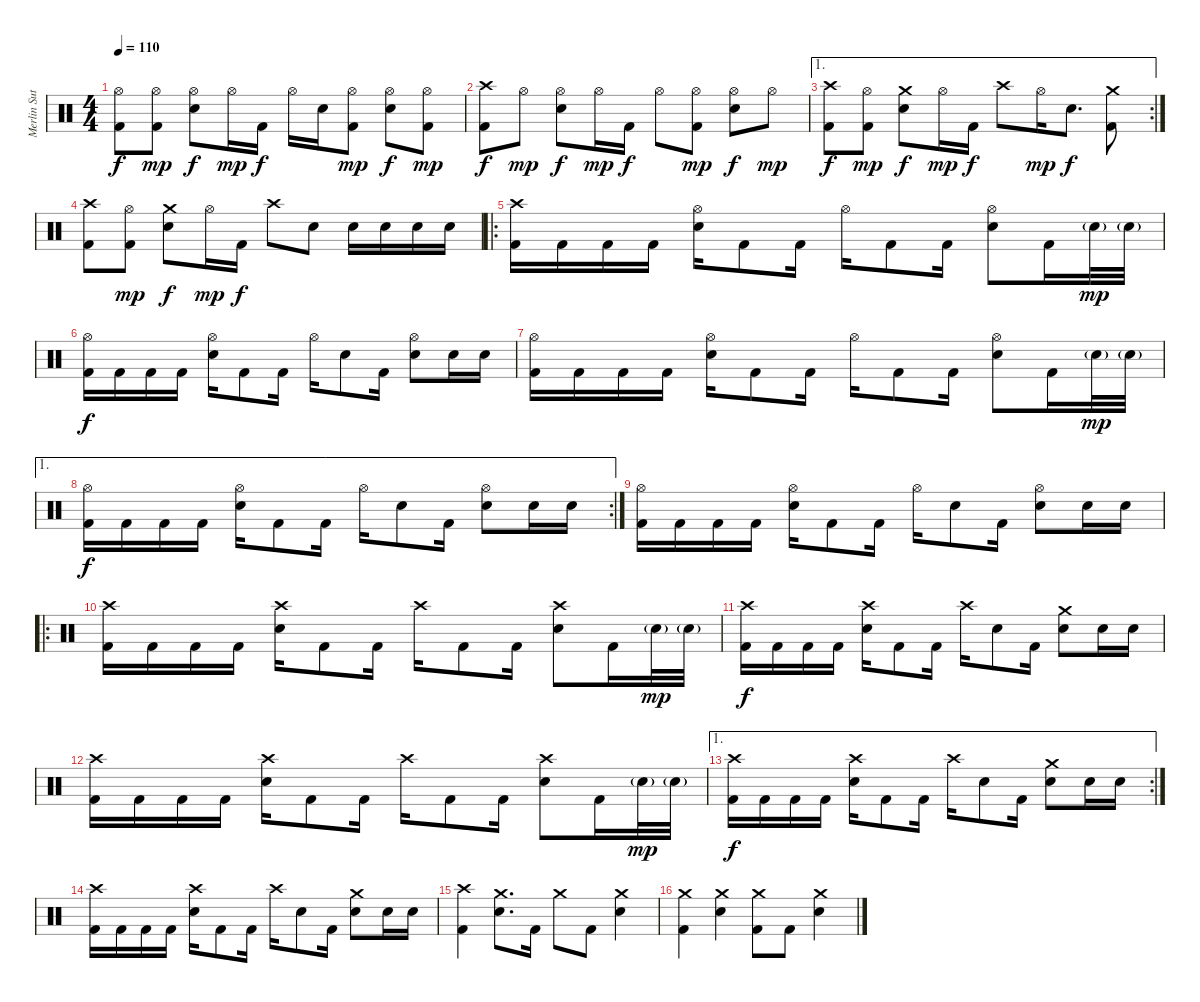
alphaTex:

\track ("Merlin Sutter" "Merlin Sut") {instrument percussion}
\staff {score}
\articulation defaults
\ts (4 4)
\tempo 110
\clef neutral
\ks c
("Hi-Hat (open)" "Kick (hit) 2").8{dy f} ("Hi-Hat (open)" "Kick (hit) 2").8{dy mp} ("Hi-Hat (open)" "Snare (hit) 2").8{dy f} "Hi-Hat (open)".16{dy mp} "Kick (hit) 2".16{dy f} "Hi-Hat (open)".16 "Snare (hit) 2".16 ("Hi-Hat (open)" "Kick (hit) 2").8{dy mp} ("Hi-Hat (open)" "Snare (hit) 2").8{dy f} ("Hi-Hat (open)" "Kick (hit) 2").8{dy mp} |
("Crash high (hit)" "Kick (hit) 2").8{dy f} "Hi-Hat (open)".8{dy mp} ("Hi-Hat (open)" "Snare (hit) 2").8{dy f} "Hi-Hat (open)".16{dy mp} "Kick (hit) 2".16{dy f} "Hi-Hat (open)".8 ("Hi-Hat (open)" "Kick (hit) 2").8{dy mp} ("Hi-Hat (open)" "Snare (hit) 2").8{dy f} "Hi-Hat (open)".8{dy mp} |
\ae 1
\rc 2
("Crash high (hit)" "Kick (hit) 2").8{dy f} ("Hi-Hat (open)" "Kick (hit) 2").8{dy mp} ("Crash medium (hit)" "Snare (hit) 2").8{dy f} "Hi-Hat (open)".16{dy mp} "Kick (hit) 2".16{dy f} "Crash high (hit)".8 "Hi-Hat (open)".16{dy mp} "Snare (hit) 2".8{d dy f} ("Crash medium (hit)" "Kick (hit) 2").8 |
("Crash high (hit)" "Kick (hit) 2").8 ("Hi-Hat (open)" "Kick (hit) 2").8{dy mp} ("Crash medium (hit)" "Snare (hit) 2").8{dy f} "Hi-Hat (open)".16{dy mp} "Kick (hit) 2".16{dy f} "Crash high (hit)".8 "Snare (hit) 2".8 "Snare (hit) 2".16 "Snare (hit) 2".16 "Snare (hit) 2".16 "Snare (hit) 2".16 |
\ro
("Crash high (hit)" "Kick (hit) 2").16 "Kick (hit) 2".16 "Kick (hit) 2".16 "Kick (hit) 2".16 ("Hi-Hat (open)" "Snare (hit) 2").16 "Kick (hit) 2".8 "Kick (hit) 2".16 "Hi-Hat (open)".16 "Kick (hit) 2".8 "Kick (hit) 2".16 ("Hi-Hat (open)" "Snare (hit) 2").8 "Kick (hit) 2".16 "Snare (hit) 2"{g}.32{dy mp} "Snare (hit) 2"{g}.32 |
("Hi-Hat (open)" "Kick (hit) 2").16{dy f} "Kick (hit) 2".16 "Kick (hit) 2".16 "Kick (hit) 2".16 ("Hi-Hat (open)" "Snare (hit) 2").16 "Kick (hit) 2".8 "Kick (hit) 2".16 "Hi-Hat (open)".16 "Snare (hit) 2".8 "Kick (hit) 2".16 ("Hi-Hat (open)" "Snare (hit) 2").8 "Snare (hit) 2".16 "Snare (hit) 2".16 |
("Hi-Hat (open)" "Kick (hit) 2").16 "Kick (hit) 2".16 "Kick (hit) 2".16 "Kick (hit) 2".16 ("Hi-Hat (open)" "Snare (hit) 2").16 "Kick (hit) 2".8 "Kick (hit) 2".16 "Hi-Hat (open)".16 "Kick (hit) 2".8 "Kick (hit) 2".16 ("Hi-Hat (open)" "Snare (hit) 2").8 "Kick (hit) 2".16 "Snare (hit) 2"{g}.32{dy mp} "Snare (hit) 2"{g}.32 |
\ae 1
\rc 2
("Hi-Hat (open)" "Kick (hit) 2").16{dy f} "Kick (hit) 2".16 "Kick (hit) 2".16 "Kick (hit) 2".16 ("Hi-Hat (open)" "Snare (hit) 2").16 "Kick (hit) 2".8 "Kick (hit) 2".16 "Hi-Hat (open)".16 "Snare (hit) 2".8 "Kick (hit) 2".16 ("Hi-Hat (open)" "Snare (hit) 2").8 "Snare (hit) 2".16 "Snare (hit) 2".16 |
("Hi-Hat (open)" "Kick (hit) 2").16 "Kick (hit) 2".16 "Kick (hit) 2".16 "Kick (hit) 2".16 ("Hi-Hat (open)" "Snare (hit) 2").16 "Kick (hit) 2".8 "Kick (hit) 2".16 "Hi-Hat (open)".16 "Snare (hit) 2".8 "Kick (hit) 2".16 ("Hi-Hat (open)" "Snare (hit) 2").8 "Snare (hit) 2".16 "Snare (hit) 2".16 |
\ro
("Crash high (hit)" "Kick (hit) 2").16 "Kick (hit) 2".16 "Kick (hit) 2".16 "Kick (hit) 2".16 ("Crash high (hit)" "Snare (hit) 2").16 "Kick (hit) 2".8 "Kick (hit) 2".16 "Crash high (hit)".16 "Kick (hit) 2".8 "Kick (hit) 2".16 ("Crash high (hit)" "Snare (hit) 2").8 "Kick (hit) 2".16 "Snare (hit) 2"{g}.32{dy mp} "Snare (hit) 2"{g}.32 |
("Crash high (hit)" "Kick (hit) 2").16{dy f} "Kick (hit) 2".16 "Kick (hit) 2".16 "Kick (hit) 2".16 ("Crash high (hit)" "Snare (hit) 2").16 "Kick (hit) 2".8 "Kick (hit) 2".16 "Crash high (hit)".16 "Snare (hit) 2".8 "Kick (hit) 2".16 ("Crash medium (hit)" "Snare (hit) 2").8 "Snare (hit) 2".16 "Snare (hit) 2".16 |
("Crash high (hit)" "Kick (hit) 2").16 "Kick (hit) 2".16 "Kick (hit) 2".16 "Kick (hit) 2".16 ("Crash high (hit)" "Snare (hit) 2").16 "Kick (hit) 2".8 "Kick (hit) 2".16 "Crash high (hit)".16 "Kick (hit) 2".8 "Kick (hit) 2".16 ("Crash high (hit)" "Snare (hit) 2").8 "Kick (hit) 2".16 "Snare (hit) 2"{g}.32{dy mp} "Snare (hit) 2"{g}.32 |
\ae 1
\rc 2
("Crash high (hit)" "Kick (hit) 2").16{dy f} "Kick (hit) 2".16 "Kick (hit) 2".16 "Kick (hit) 2".16 ("Crash high (hit)" "Snare (hit) 2").16 "Kick (hit) 2".8 "Kick (hit) 2".16 "Crash high (hit)".16 "Snare (hit) 2".8 "Kick (hit) 2".16 ("Crash medium (hit)" "Snare (hit) 2").8 "Snare (hit) 2".16 "Snare (hit) 2".16 |
("Crash high (hit)" "Kick (hit) 2").16 "Kick (hit) 2".16 "Kick (hit) 2".16 "Kick (hit) 2".16 ("Crash high (hit)" "Snare (hit) 2").16 "Kick (hit) 2".8 "Kick (hit) 2".16 "Crash high (hit)".16 "Snare (hit) 2".8 "Kick (hit) 2".16 ("Crash medium (hit)" "Snare (hit) 2").8 "Snare (hit) 2".16 "Snare (hit) 2".16 |
("Crash high (hit)" "Kick (hit) 2").4 ("Crash medium (hit)" "Snare (hit) 2").8{d} "Kick (hit) 2".16 "Crash medium (hit)".8 "Kick (hit) 2".8 ("Crash medium (hit)" "Snare (hit) 2").4 |
("Crash medium (hit)" "Kick (hit) 2").4 ("Crash medium (hit)" "Snare (hit) 2").4 ("Crash medium (hit)" "Kick (hit) 2").8 "Kick (hit) 2".8 ("Crash medium (hit)" "Snare (hit) 2").4
